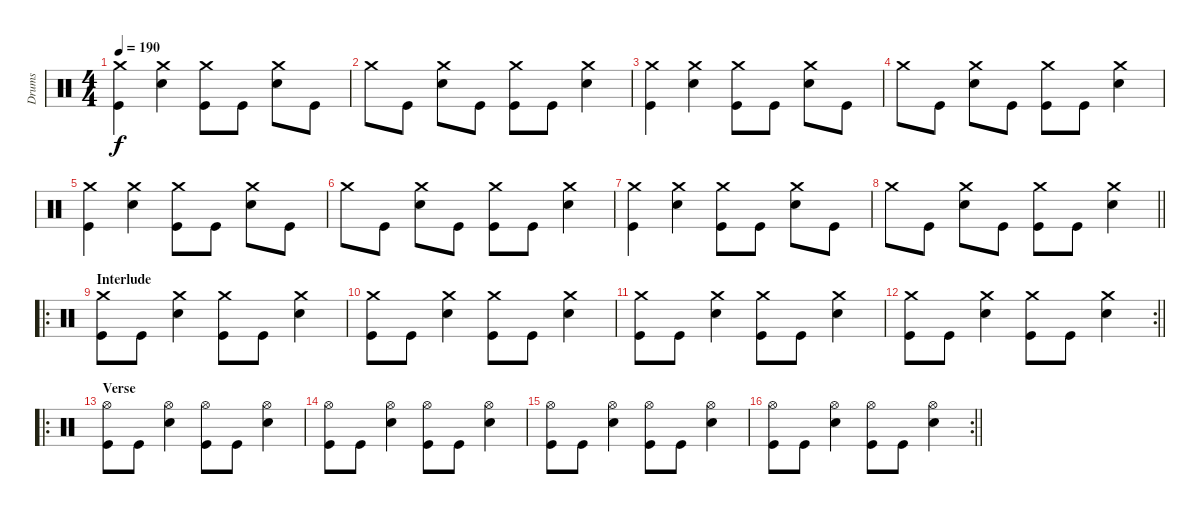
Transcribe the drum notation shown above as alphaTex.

\track ("Drums" "Drums") {instrument percussion}
\staff {score}
\articulation defaults
\ts (4 4)
\tempo 190
\clef neutral
\ks c
("Crash medium (hit)" "Kick (hit)").4{dy f} ("Crash medium (hit)" "Snare (hit) 2").4 ("Crash medium (hit)" "Kick (hit)").8 "Kick (hit)".8 ("Crash medium (hit)" "Snare (hit) 2").8 "Kick (hit)".8 |
"Crash medium (hit)".8 "Kick (hit)".8 ("Crash medium (hit)" "Snare (hit) 2").8 "Kick (hit)".8 ("Crash medium (hit)" "Kick (hit)").8 "Kick (hit)".8 ("Crash medium (hit)" "Snare (hit) 2").4 |
("Crash medium (hit)" "Kick (hit)").4 ("Crash medium (hit)" "Snare (hit) 2").4 ("Crash medium (hit)" "Kick (hit)").8 "Kick (hit)".8 ("Crash medium (hit)" "Snare (hit) 2").8 "Kick (hit)".8 |
"Crash medium (hit)".8 "Kick (hit)".8 ("Crash medium (hit)" "Snare (hit) 2").8 "Kick (hit)".8 ("Crash medium (hit)" "Kick (hit)").8 "Kick (hit)".8 ("Crash medium (hit)" "Snare (hit) 2").4 |
("Crash medium (hit)" "Kick (hit)").4 ("Crash medium (hit)" "Snare (hit) 2").4 ("Crash medium (hit)" "Kick (hit)").8 "Kick (hit)".8 ("Crash medium (hit)" "Snare (hit) 2").8 "Kick (hit)".8 |
"Crash medium (hit)".8 "Kick (hit)".8 ("Crash medium (hit)" "Snare (hit) 2").8 "Kick (hit)".8 ("Crash medium (hit)" "Kick (hit)").8 "Kick (hit)".8 ("Crash medium (hit)" "Snare (hit) 2").4 |
("Crash medium (hit)" "Kick (hit)").4 ("Crash medium (hit)" "Snare (hit) 2").4 ("Crash medium (hit)" "Kick (hit)").8 "Kick (hit)".8 ("Crash medium (hit)" "Snare (hit) 2").8 "Kick (hit)".8 |
\barLineRight lightlight "Crash medium (hit)".8 "Kick (hit)".8
("Crash medium (hit)" "Snare (hit) 2").8 "Kick (hit)".8 ("Crash medium (hit)" "Kick (hit)").8 "Kick (hit)".8 ("Crash medium (hit)" "Snare (hit) 2").4 |
\ro
\section ("" "Interlude")
("Crash medium (hit)" "Kick (hit)").8 "Kick (hit)".8 ("Crash medium (hit)" "Snare (hit) 2").4 ("Crash medium (hit)" "Kick (hit)").8 "Kick (hit)".8 ("Crash medium (hit)" "Snare (hit) 2").4 |
("Crash medium (hit)" "Kick (hit)").8 "Kick (hit)".8 ("Crash medium (hit)" "Snare (hit) 2").4 ("Crash medium (hit)" "Kick (hit)").8 "Kick (hit)".8 ("Crash medium (hit)" "Snare (hit) 2").4 |
("Crash medium (hit)" "Kick (hit)").8 "Kick (hit)".8 ("Crash medium (hit)" "Snare (hit) 2").4 ("Crash medium (hit)" "Kick (hit)").8 "Kick (hit)".8 ("Crash medium (hit)" "Snare (hit) 2").4 |
\rc 2
\barLineRight lightlight
("Crash medium (hit)" "Kick (hit)").8 "Kick (hit)".8 ("Crash medium (hit)" "Snare (hit) 2").4 ("Crash medium (hit)" "Kick (hit)").8 "Kick (hit)".8 ("Crash medium (hit)" "Snare (hit) 2").4 |
\ro
\section ("" "Verse")
("Hi-Hat (open)" "Kick (hit)").8 "Kick (hit)".8 ("Hi-Hat (open)" "Snare (hit) 2").4 ("Hi-Hat (open)" "Kick (hit)").8 "Kick (hit)".8 ("Hi-Hat (open)" "Snare (hit) 2").4 |
("Hi-Hat (open)" "Kick (hit)").8 "Kick (hit)".8 ("Hi-Hat (open)" "Snare (hit) 2").4 ("Hi-Hat (open)" "Kick (hit)").8 "Kick (hit)".8 ("Hi-Hat (open)" "Snare (hit) 2").4 |
("Hi-Hat (open)" "Kick (hit)").8 "Kick (hit)".8 ("Hi-Hat (open)" "Snare (hit) 2").4 ("Hi-Hat (open)" "Kick (hit)").8 "Kick (hit)".8 ("Hi-Hat (open)" "Snare (hit) 2").4 |
\rc 2
\barLineRight lightlight
("Hi-Hat (open)" "Kick (hit)").8 "Kick (hit)".8 ("Hi-Hat (open)" "Snare (hit) 2").4 ("Hi-Hat (open)" "Kick (hit)").8 "Kick (hit)".8 ("Hi-Hat (open)" "Snare (hit) 2").4
